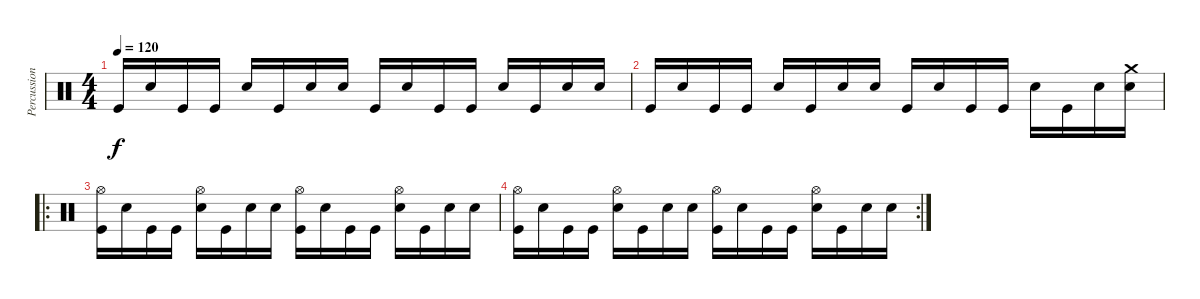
\track ("Percussion" "Percussion") {instrument percussion}
\staff {score}
\articulation defaults
\ts (4 4)
\tempo 120
\clef neutral
\ks c "Kick (hit)".16{dy f} "Snare (hit) 2".16 "Kick (hit)".16 "Kick (hit)".16 "Snare (hit) 2".16 "Kick (hit)".16 "Snare (hit) 2".16 "Snare (hit) 2".16 "Kick (hit)".16 "Snare (hit) 2".16 "Kick (hit)".16 "Kick (hit)".16 "Snare (hit) 2".16 "Kick (hit)".16 "Snare (hit) 2".16 "Snare (hit) 2".16
|
"Kick (hit)".16 "Snare (hit) 2".16 "Kick (hit)".16 "Kick (hit)".16 "Snare (hit) 2".16 "Kick (hit)".16 "Snare (hit) 2".16 "Snare (hit) 2".16 "Kick (hit)".16 "Snare (hit) 2".16 "Kick (hit)".16 "Kick (hit)".16 "Snare (hit) 2".16 "Kick (hit)".16 "Snare (hit) 2".16 ("Crash medium (hit)" "Snare (hit) 2").16 |
\ro
("Hi-Hat (open)" "Kick (hit)").16 "Snare (hit) 2".16 "Kick (hit)".16 "Kick (hit)".16 ("Hi-Hat (open)" "Snare (hit) 2").16 "Kick (hit)".16 "Snare (hit) 2".16 "Snare (hit) 2".16 ("Hi-Hat (open)" "Kick (hit)").16 "Snare (hit) 2".16 "Kick (hit)".16 "Kick (hit)".16 ("Hi-Hat (open)" "Snare (hit) 2").16 "Kick (hit)".16 "Snare (hit) 2".16 "Snare (hit) 2".16 |
\rc 2
("Hi-Hat (open)" "Kick (hit)").16 "Snare (hit) 2".16 "Kick (hit)".16 "Kick (hit)".16 ("Hi-Hat (open)" "Snare (hit) 2").16 "Kick (hit)".16 "Snare (hit) 2".16 "Snare (hit) 2".16 ("Hi-Hat (open)" "Kick (hit)").16 "Snare (hit) 2".16 "Kick (hit)".16 "Kick (hit)".16 ("Hi-Hat (open)" "Snare (hit) 2").16 "Kick (hit)".16 "Snare (hit) 2".16 "Snare (hit) 2".16
